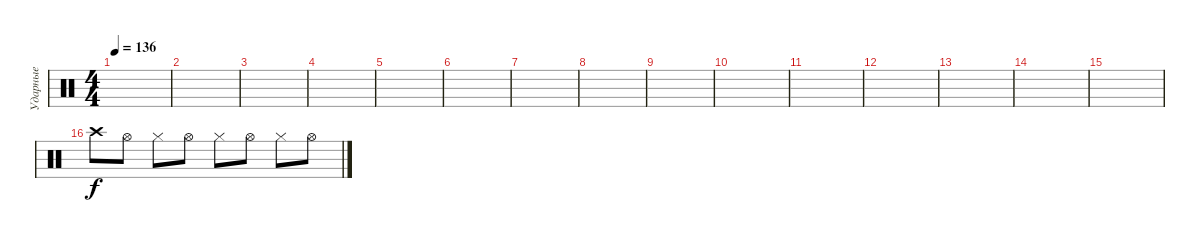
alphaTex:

\track ("Ударные" "Ударные") {instrument percussion}
\staff {score}
\articulation defaults
\ts (4 4)
\tempo 136
\clef neutral
\ks c
|
|
|
|
|
|
|
|
|
|
|
|
|
|
|
"Crash high (hit)".8 "Hi-Hat (open)".8 "Hi-Hat (closed)".8 "Hi-Hat (open)".8 "Hi-Hat (closed)".8 "Hi-Hat (open)".8 "Hi-Hat (closed)".8 "Hi-Hat (open)".8
